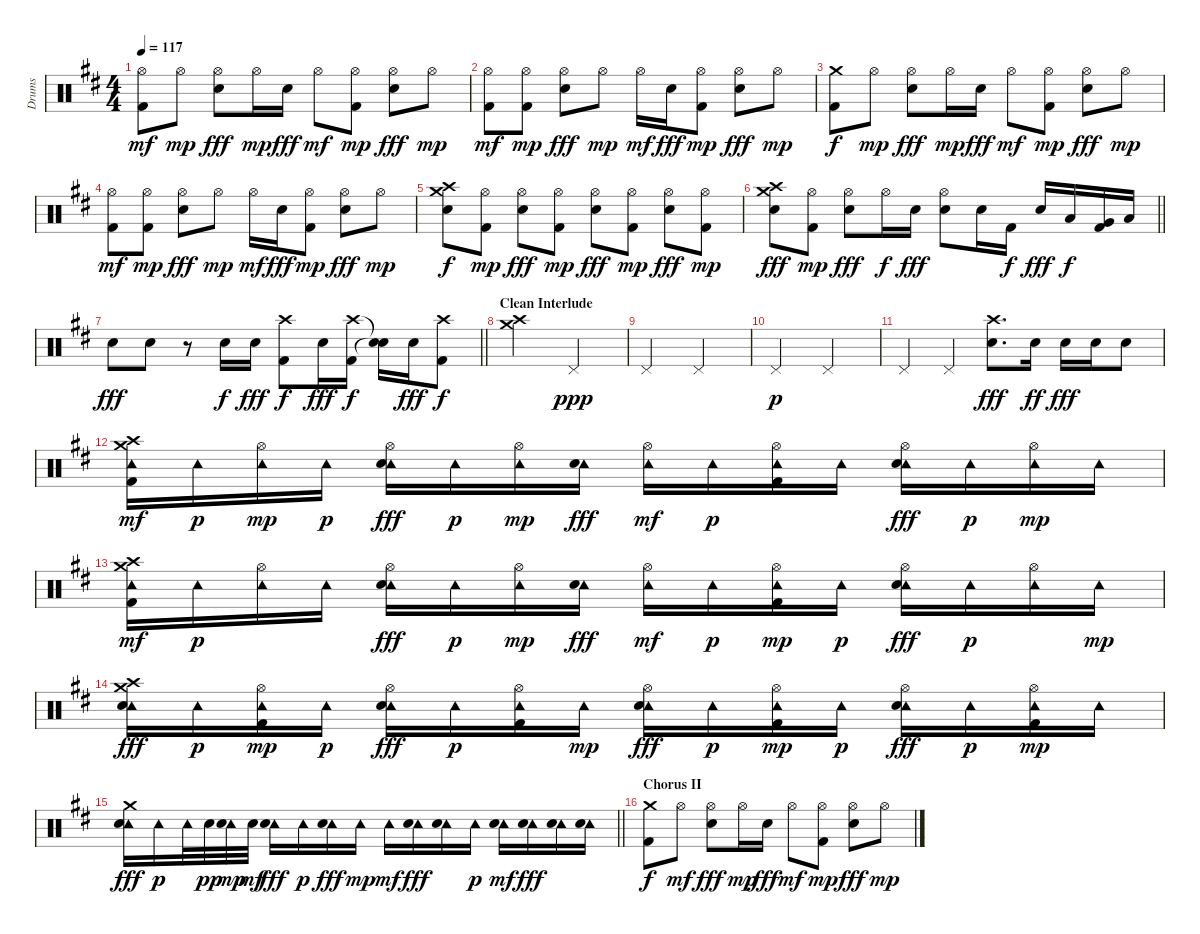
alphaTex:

\track ("Drums" "Drums") {instrument percussion}
\staff {score}
\articulation defaults
\ts (4 4)
\tempo 117
\clef neutral
\ks d
("Hi-Hat (open)" "Kick (hit) 2").8{dy mf} "Hi-Hat (open)".8{dy mp} ("Hi-Hat (open)" "Electric Snare (hit)").8{dy fff} "Hi-Hat (open)".16{dy mp} "Electric Snare (hit)".16{dy fff} "Hi-Hat (open)".8{dy mf} ("Hi-Hat (open)" "Kick (hit) 2").8{dy mp} ("Hi-Hat (open)" "Electric Snare (hit)").8{dy fff} "Hi-Hat (open)".8{dy mp} |
("Hi-Hat (open)" "Kick (hit) 2").8{dy mf} ("Hi-Hat (open)" "Kick (hit) 2").8{dy mp} ("Hi-Hat (open)" "Electric Snare (hit)").8{dy fff} "Hi-Hat (open)".8{dy mp} "Hi-Hat (open)".16{dy mf} "Electric Snare (hit)".16{dy fff} ("Hi-Hat (open)" "Kick (hit) 2").8{dy mp} ("Hi-Hat (open)" "Electric Snare (hit)").8{dy fff} "Hi-Hat (open)".8{dy mp} |
("Crash medium (hit)" "Kick (hit) 2").8{dy f} "Hi-Hat (open)".8{dy mp} ("Hi-Hat (open)" "Electric Snare (hit)").8{dy fff} "Hi-Hat (open)".16{dy mp} "Electric Snare (hit)".16{dy fff} "Hi-Hat (open)".8{dy mf} ("Hi-Hat (open)" "Kick (hit) 2").8{dy mp} ("Hi-Hat (open)" "Electric Snare (hit)").8{dy fff} "Hi-Hat (open)".8{dy mp} |
("Hi-Hat (open)" "Kick (hit) 2").8{dy mf} ("Hi-Hat (open)" "Kick (hit) 2").8{dy mp} ("Hi-Hat (open)" "Electric Snare (hit)").8{dy fff} "Hi-Hat (open)".8{dy mp} "Hi-Hat (open)".16{dy mf} "Electric Snare (hit)".16{dy fff} ("Hi-Hat (open)" "Kick (hit) 2").8{dy mp} ("Hi-Hat (open)" "Electric Snare (hit)").8{dy fff} "Hi-Hat (open)".8{dy mp} |
("Crash high (hit)" "Crash medium (hit)" "Electric Snare (hit)").8{dy f} ("Hi-Hat (open)" "Kick (hit) 2").8{dy mp} ("Hi-Hat (open)" "Electric Snare (hit)").8{dy fff} ("Hi-Hat (open)" "Kick (hit) 2").8{dy mp} ("Hi-Hat (open)" "Electric Snare (hit)").8{dy fff} ("Hi-Hat (open)" "Kick (hit) 2").8{dy mp} ("Hi-Hat (open)" "Electric Snare (hit)").8{dy fff} ("Hi-Hat (open)" "Kick (hit) 2").8{dy mp} |
\barLineRight lightlight
("Crash high (hit)" "Crash medium (hit)" "Electric Snare (hit)").8{dy fff} ("Hi-Hat (open)" "Kick (hit) 2").8{dy mp} ("Hi-Hat (open)" "Electric Snare (hit)").8{dy fff} "Hi-Hat (open)".16{dy f} "Electric Snare (hit)".16{dy fff} ("Hi-Hat (open)" "Electric Snare (hit)").8 "Electric Snare (hit)".16 "Kick (hit) 2".16{dy f} "Electric Snare (hit)".16{dy fff} "Low Tom (hit)".16{dy f} ("Kick (hit) 2" "Very Low Tom (hit)").16 "Low Floor Tom (hit)".16 |
\barLineRight lightlight "Electric Snare (hit)".8{dy fff} "Electric Snare (hit)".8
r.8 "Snare (hit) 2".16{dy f} "Electric Snare (hit)".16{dy fff} ("Crash high (hit)" "Kick (hit) 2").8{dy f} "Electric Snare (hit)".16{dy fff} ("Crash high (hit)" "Kick (hit) 2").16{dy f} ("Snare (hit)"{t} "Snare (hit)"{t}).16 "Electric Snare (hit)".16{dy fff} ("Crash high (hit)" "Kick (hit) 2").8{dy f} |
\section ("" "Clean Interlude")
("Crash medium (hit)" "Crash high (hit)").2 "Pedal Hi-Hat (hit)".2{dy ppp} |
"Pedal Hi-Hat (hit)".2 "Pedal Hi-Hat (hit)".2 |
"Pedal Hi-Hat (hit)".2{dy p} "Pedal Hi-Hat (hit)".2 |
"Pedal Hi-Hat (hit)".4 "Pedal Hi-Hat (hit)".4 ("Crash high (hit)" "Electric Snare (hit)").8{d dy fff} "Electric Snare (hit)".16{dy ff} "Electric Snare (hit)".16{dy fff} "Electric Snare (hit)".16 "Electric Snare (hit)".8 |
("Tambourine (hit)" "Crash medium (hit)" "Crash high (hit)" "Kick (hit) 2").16{dy mf} "Tambourine (hit)".16{dy p} ("Tambourine (hit)" "Hi-Hat (open)").16{dy mp} "Tambourine (hit)".16{dy p} ("Tambourine (hit)" "Hi-Hat (open)" "Electric Snare (hit)").16{dy fff} "Tambourine (hit)".16{dy p} ("Tambourine (hit)" "Hi-Hat (open)").16{dy mp} ("Tambourine (hit)" "Electric Snare (hit)").16{dy fff} ("Tambourine (hit)" "Hi-Hat (open)").16{dy mf} "Tambourine (hit)".16{dy p} ("Hi-Hat (open)" "Tambourine (hit)" "Kick (hit) 2").16 "Tambourine (hit)".16 ("Tambourine (hit)" "Hi-Hat (open)" "Electric Snare (hit)").16{dy fff} "Tambourine (hit)".16{dy p} ("Tambourine (hit)" "Hi-Hat (open)").16{dy mp} "Tambourine (hit)".16 |
("Tambourine (hit)" "Crash medium (hit)" "Crash high (hit)" "Kick (hit) 2").16{dy mf} "Tambourine (hit)".16{dy p} ("Hi-Hat (open)" "Tambourine (hit)").16 "Tambourine (hit)".16 ("Tambourine (hit)" "Hi-Hat (open)" "Electric Snare (hit)").16{dy fff} "Tambourine (hit)".16{dy p} ("Tambourine (hit)" "Hi-Hat (open)").16{dy mp} ("Tambourine (hit)" "Electric Snare (hit)").16{dy fff} ("Tambourine (hit)" "Hi-Hat (open)").16{dy mf} "Tambourine (hit)".16{dy p} ("Tambourine (hit)" "Hi-Hat (open)" "Kick (hit) 2").16{dy mp} "Tambourine (hit)".16{dy p} ("Tambourine (hit)" "Hi-Hat (open)" "Electric Snare (hit)").16{dy fff} "Tambourine (hit)".16{dy p} ("Hi-Hat (open)" "Tambourine (hit)").16 "Tambourine (hit)".16{dy mp} |
("Tambourine (hit)" "Crash medium (hit)" "Crash high (hit)" "Electric Snare (hit)").16{dy fff} "Tambourine (hit)".16{dy p} ("Tambourine (hit)" "Hi-Hat (open)" "Kick (hit) 2").16{dy mp} "Tambourine (hit)".16{dy p} ("Tambourine (hit)" "Hi-Hat (open)" "Electric Snare (hit)").16{dy fff} "Tambourine (hit)".16{dy p} ("Hi-Hat (open)" "Tambourine (hit)" "Kick (hit) 2").16 "Tambourine (hit)".16{dy mp} ("Hi-Hat (open)" "Tambourine (hit)" "Electric Snare (hit)").16{dy fff} "Tambourine (hit)".16{dy p} ("Tambourine (hit)" "Hi-Hat (open)" "Kick (hit) 2").16{dy mp} "Tambourine (hit)".16{dy p} ("Tambourine (hit)" "Hi-Hat (open)" "Electric Snare (hit)").16{dy fff} "Tambourine (hit)".16{dy p} ("Tambourine (hit)" "Hi-Hat (open)" "Kick (hit) 2").16{dy mp} "Tambourine (hit)".16 |
\barLineRight lightlight
("Tambourine (hit)" "Crash medium (hit)" "Electric Snare (hit)").16{dy fff} "Tambourine (hit)".16{dy p} "Tambourine (hit)".32 "Electric Snare (hit)".32{dy pp} ("Tambourine (hit)" "Electric Snare (hit)").32{dy mp} "Electric Snare (hit)".32{dy mf} ("Tambourine (hit)" "Electric Snare (hit)").16{dy fff} "Tambourine (hit)".16{dy p} ("Tambourine (hit)" "Electric Snare (hit)").16{dy fff} "Tambourine (hit)".16{dy mp} "Tambourine (hit)".16{dy mf} ("Tambourine (hit)" "Electric Snare (hit)").16{dy fff} ("Tambourine (hit)" "Electric Snare (hit)").16 "Tambourine (hit)".16{dy p} ("Tambourine (hit)" "Electric Snare (hit)").16{dy mf} ("Tambourine (hit)" "Electric Snare (hit)").16{dy fff} ("Tambourine (hit)" "Electric Snare (hit)").16 ("Tambourine (hit)" "Electric Snare (hit)").16 |
\section ("" "Chorus II")
("Crash medium (hit)" "Kick (hit) 2").8{dy f} "Hi-Hat (open)".8{dy mf} ("Hi-Hat (open)" "Electric Snare (hit)").8{dy fff} "Hi-Hat (open)".16{dy mp} "Electric Snare (hit)".16{dy fff} "Hi-Hat (open)".8{dy mf} ("Hi-Hat (open)" "Kick (hit) 2").8{dy mp} ("Hi-Hat (open)" "Electric Snare (hit)").8{dy fff} "Hi-Hat (open)".8{dy mp}
